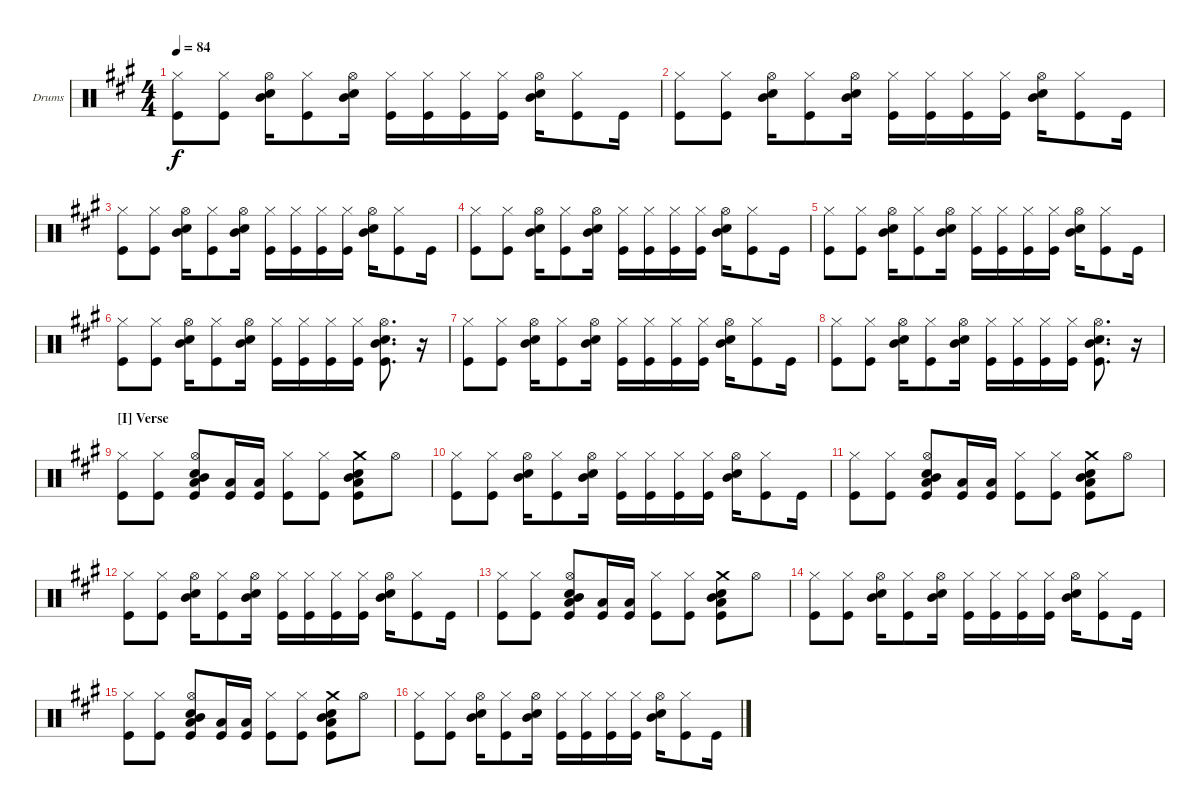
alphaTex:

\defaultSystemsLayout 4
\bracketExtendMode groupsimilarinstruments
\firstSystemTrackNameOrientation horizontal
\otherSystemsTrackNameOrientation horizontal
\track ("Drumkit" "Drums") {instrument percussion}
\staff {score}
\articulation defaults
\ts (4 4)
\tempo 84
\clef neutral
\scale
1.05801
\ks a
("Kick (hit)" "Hi-Hat (closed)").8{dy f} ("Kick (hit)" "Hi-Hat (closed)").8 ("Snare (hit) 2" "Mid Tom (hit)" "Hi-Hat (open)").16 ("Kick (hit)" "Hi-Hat (closed)").8 ("Snare (hit) 2" "Mid Tom (hit)" "Hi-Hat (open)").16 ("Kick (hit)" "Hi-Hat (closed)").16 ("Kick (hit)" "Hi-Hat (closed)").16 ("Kick (hit)" "Hi-Hat (closed)").16 ("Kick (hit)" "Hi-Hat (closed)").16 ("Snare (hit) 2" "Mid Tom (hit)" "Hi-Hat (open)").16 ("Kick (hit)" "Hi-Hat (closed)").8 "Kick (hit)".16 |
\scale
0.941992 ("Kick (hit)" "Hi-Hat (closed)").8 ("Kick (hit)" "Hi-Hat (closed)").8 ("Snare (hit) 2" "Mid Tom (hit)" "Hi-Hat (open)").16 ("Kick (hit)" "Hi-Hat (closed)").8 ("Snare (hit) 2" "Mid Tom (hit)" "Hi-Hat (open)").16 ("Kick (hit)" "Hi-Hat (closed)").16 ("Kick (hit)" "Hi-Hat (closed)").16 ("Kick (hit)" "Hi-Hat (closed)").16 ("Kick (hit)" "Hi-Hat (closed)").16 ("Snare (hit) 2" "Mid Tom (hit)" "Hi-Hat (open)").16 ("Kick (hit)" "Hi-Hat (closed)").8 "Kick (hit)".16 |
\scale
1.05801 ("Kick (hit)" "Hi-Hat (closed)").8 ("Kick (hit)" "Hi-Hat (closed)").8 ("Snare (hit) 2" "Mid Tom (hit)" "Hi-Hat (open)").16 ("Kick (hit)" "Hi-Hat (closed)").8 ("Snare (hit) 2" "Mid Tom (hit)" "Hi-Hat (open)").16 ("Kick (hit)" "Hi-Hat (closed)").16 ("Kick (hit)" "Hi-Hat (closed)").16 ("Kick (hit)" "Hi-Hat (closed)").16 ("Kick (hit)" "Hi-Hat (closed)").16 ("Snare (hit) 2" "Mid Tom (hit)" "Hi-Hat (open)").16 ("Kick (hit)" "Hi-Hat (closed)").8 "Kick (hit)".16 |
\scale
0.941992 ("Kick (hit)" "Hi-Hat (closed)").8 ("Kick (hit)" "Hi-Hat (closed)").8 ("Snare (hit) 2" "Mid Tom (hit)" "Hi-Hat (open)").16 ("Kick (hit)" "Hi-Hat (closed)").8 ("Snare (hit) 2" "Mid Tom (hit)" "Hi-Hat (open)").16 ("Kick (hit)" "Hi-Hat (closed)").16 ("Kick (hit)" "Hi-Hat (closed)").16 ("Kick (hit)" "Hi-Hat (closed)").16 ("Kick (hit)" "Hi-Hat (closed)").16 ("Snare (hit) 2" "Mid Tom (hit)" "Hi-Hat (open)").16 ("Kick (hit)" "Hi-Hat (closed)").8 "Kick (hit)".16 |
\scale
1.05801 ("Kick (hit)" "Hi-Hat (closed)").8 ("Kick (hit)" "Hi-Hat (closed)").8 ("Snare (hit) 2" "Mid Tom (hit)" "Hi-Hat (open)").16 ("Kick (hit)" "Hi-Hat (closed)").8 ("Snare (hit) 2" "Mid Tom (hit)" "Hi-Hat (open)").16 ("Kick (hit)" "Hi-Hat (closed)").16 ("Kick (hit)" "Hi-Hat (closed)").16 ("Kick (hit)" "Hi-Hat (closed)").16 ("Kick (hit)" "Hi-Hat (closed)").16 ("Snare (hit) 2" "Mid Tom (hit)" "Hi-Hat (open)").16 ("Kick (hit)" "Hi-Hat (closed)").8 "Kick (hit)".16 |
\scale
0.941992 ("Kick (hit)" "Hi-Hat (closed)").8 ("Kick (hit)" "Hi-Hat (closed)").8 ("Snare (hit) 2" "Mid Tom (hit)" "Hi-Hat (open)").16 ("Kick (hit)" "Hi-Hat (closed)").8 ("Snare (hit) 2" "Mid Tom (hit)" "Hi-Hat (open)").16 ("Kick (hit)" "Hi-Hat (closed)").16 ("Kick (hit)" "Hi-Hat (closed)").16 ("Kick (hit)" "Hi-Hat (closed)").16 ("Kick (hit)" "Hi-Hat (closed)").16 ("Snare (hit) 2" "Mid Tom (hit)" "Hi-Hat (open)" "Kick (hit)").8{d} r.16 |
\scale
1.05801 ("Kick (hit)" "Hi-Hat (closed)").8 ("Kick (hit)" "Hi-Hat (closed)").8 ("Snare (hit) 2" "Mid Tom (hit)" "Hi-Hat (open)").16 ("Kick (hit)" "Hi-Hat (closed)").8 ("Snare (hit) 2" "Mid Tom (hit)" "Hi-Hat (open)").16 ("Kick (hit)" "Hi-Hat (closed)").16 ("Kick (hit)" "Hi-Hat (closed)").16 ("Kick (hit)" "Hi-Hat (closed)").16 ("Kick (hit)" "Hi-Hat (closed)").16 ("Snare (hit) 2" "Mid Tom (hit)" "Hi-Hat (open)").16 ("Kick (hit)" "Hi-Hat (closed)").8 "Kick (hit)".16 |
\scale
0.941992 ("Kick (hit)" "Hi-Hat (closed)").8 ("Kick (hit)" "Hi-Hat (closed)").8 ("Snare (hit) 2" "Mid Tom (hit)" "Hi-Hat (open)").16 ("Kick (hit)" "Hi-Hat (closed)").8 ("Snare (hit) 2" "Mid Tom (hit)" "Hi-Hat (open)").16 ("Kick (hit)" "Hi-Hat (closed)").16 ("Kick (hit)" "Hi-Hat (closed)").16 ("Kick (hit)" "Hi-Hat (closed)").16 ("Kick (hit)" "Hi-Hat (closed)").16 ("Snare (hit) 2" "Mid Tom (hit)" "Hi-Hat (open)" "Kick (hit)").8{d} r.16 |
\section ("I" "Verse")
\scale
1.05801 ("Hi-Hat (closed)" "Kick (hit)").8 ("Hi-Hat (closed)" "Kick (hit)").8 ("Snare (hit) 2" "Mid Tom (hit)" "Hi-Hat (open)" "Low Tom (hit)" "Kick (hit)").8 ("Low Tom (hit)" "Kick (hit)").16 ("Low Tom (hit)" "Kick (hit)").16 ("Hi-Hat (closed)" "Kick (hit)").8 ("Hi-Hat (closed)" "Kick (hit)").8 ("Snare (hit) 2" "Mid Tom (hit)" "Crash medium (hit)" "Low Tom (hit)" "Kick (hit)").8 "Hi-Hat (open)".8 |
\scale
0.941992 ("Kick (hit)" "Hi-Hat (closed)").8 ("Kick (hit)" "Hi-Hat (closed)").8 ("Snare (hit) 2" "Mid Tom (hit)" "Hi-Hat (open)").16 ("Kick (hit)" "Hi-Hat (closed)").8 ("Snare (hit) 2" "Mid Tom (hit)" "Hi-Hat (open)").16 ("Kick (hit)" "Hi-Hat (closed)").16 ("Kick (hit)" "Hi-Hat (closed)").16 ("Kick (hit)" "Hi-Hat (closed)").16 ("Kick (hit)" "Hi-Hat (closed)").16 ("Snare (hit) 2" "Mid Tom (hit)" "Hi-Hat (open)").16 ("Kick (hit)" "Hi-Hat (closed)").8 "Kick (hit)".16 |
\scale
1.05801 ("Hi-Hat (closed)" "Kick (hit)").8 ("Hi-Hat (closed)" "Kick (hit)").8 ("Snare (hit) 2" "Mid Tom (hit)" "Hi-Hat (open)" "Low Tom (hit)" "Kick (hit)").8 ("Low Tom (hit)" "Kick (hit)").16 ("Low Tom (hit)" "Kick (hit)").16 ("Hi-Hat (closed)" "Kick (hit)").8 ("Hi-Hat (closed)" "Kick (hit)").8 ("Snare (hit) 2" "Mid Tom (hit)" "Crash medium (hit)" "Low Tom (hit)" "Kick (hit)").8 "Hi-Hat (open)".8 |
\scale
0.941992 ("Kick (hit)" "Hi-Hat (closed)").8 ("Kick (hit)" "Hi-Hat (closed)").8 ("Snare (hit) 2" "Mid Tom (hit)" "Hi-Hat (open)").16 ("Kick (hit)" "Hi-Hat (closed)").8 ("Snare (hit) 2" "Mid Tom (hit)" "Hi-Hat (open)").16 ("Kick (hit)" "Hi-Hat (closed)").16 ("Kick (hit)" "Hi-Hat (closed)").16 ("Kick (hit)" "Hi-Hat (closed)").16 ("Kick (hit)" "Hi-Hat (closed)").16 ("Snare (hit) 2" "Mid Tom (hit)" "Hi-Hat (open)").16 ("Kick (hit)" "Hi-Hat (closed)").8 "Kick (hit)".16 |
\scale
1.05801 ("Hi-Hat (closed)" "Kick (hit)").8 ("Hi-Hat (closed)" "Kick (hit)").8 ("Snare (hit) 2" "Mid Tom (hit)" "Hi-Hat (open)" "Low Tom (hit)" "Kick (hit)").8 ("Low Tom (hit)" "Kick (hit)").16 ("Low Tom (hit)" "Kick (hit)").16 ("Hi-Hat (closed)" "Kick (hit)").8 ("Hi-Hat (closed)" "Kick (hit)").8 ("Snare (hit) 2" "Mid Tom (hit)" "Crash medium (hit)" "Low Tom (hit)" "Kick (hit)").8 "Hi-Hat (open)".8 |
\scale
0.941992 ("Kick (hit)" "Hi-Hat (closed)").8 ("Kick (hit)" "Hi-Hat (closed)").8 ("Snare (hit) 2" "Mid Tom (hit)" "Hi-Hat (open)").16 ("Kick (hit)" "Hi-Hat (closed)").8 ("Snare (hit) 2" "Mid Tom (hit)" "Hi-Hat (open)").16 ("Kick (hit)" "Hi-Hat (closed)").16 ("Kick (hit)" "Hi-Hat (closed)").16 ("Kick (hit)" "Hi-Hat (closed)").16 ("Kick (hit)" "Hi-Hat (closed)").16 ("Snare (hit) 2" "Mid Tom (hit)" "Hi-Hat (open)").16 ("Kick (hit)" "Hi-Hat (closed)").8 "Kick (hit)".16 |
\scale
1.05801 ("Hi-Hat (closed)" "Kick (hit)").8 ("Hi-Hat (closed)" "Kick (hit)").8 ("Snare (hit) 2" "Mid Tom (hit)" "Hi-Hat (open)" "Low Tom (hit)" "Kick (hit)").8 ("Low Tom (hit)" "Kick (hit)").16 ("Low Tom (hit)" "Kick (hit)").16 ("Hi-Hat (closed)" "Kick (hit)").8 ("Hi-Hat (closed)" "Kick (hit)").8 ("Snare (hit) 2" "Mid Tom (hit)" "Crash medium (hit)" "Low Tom (hit)" "Kick (hit)").8 "Hi-Hat (open)".8 |
\scale
0.941992 ("Kick (hit)" "Hi-Hat (closed)").8 ("Kick (hit)" "Hi-Hat (closed)").8 ("Snare (hit) 2" "Mid Tom (hit)" "Hi-Hat (open)").16 ("Kick (hit)" "Hi-Hat (closed)").8 ("Snare (hit) 2" "Mid Tom (hit)" "Hi-Hat (open)").16 ("Kick (hit)" "Hi-Hat (closed)").16 ("Kick (hit)" "Hi-Hat (closed)").16 ("Kick (hit)" "Hi-Hat (closed)").16 ("Kick (hit)" "Hi-Hat (closed)").16 ("Snare (hit) 2" "Mid Tom (hit)" "Hi-Hat (open)").16 ("Kick (hit)" "Hi-Hat (closed)").8 "Kick (hit)".16
